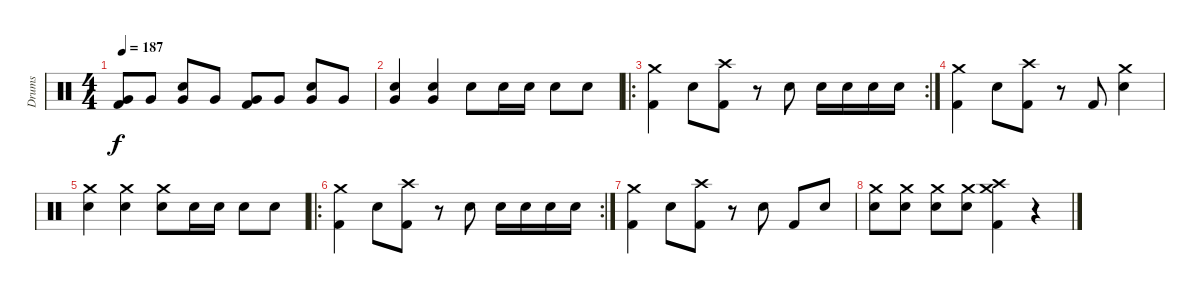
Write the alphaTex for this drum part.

\track ("Drums" "Drums") {instrument percussion}
\staff {score}
\articulation defaults
\ts (4 4)
\tempo 187
\clef neutral
\ks c
("Very Low Tom (hit)" "Kick (hit) 2").8{dy f} "Very Low Tom (hit)".8 ("Snare (hit) 2" "Very Low Tom (hit)").8 "Very Low Tom (hit)".8 ("Very Low Tom (hit)" "Kick (hit) 2").8 "Very Low Tom (hit)".8 ("Snare (hit) 2" "Very Low Tom (hit)").8 "Very Low Tom (hit)".8 |
("Snare (hit) 2" "Very Low Tom (hit)").4 ("Snare (hit) 2" "Very Low Tom (hit)").4 "Snare (hit) 2".8 "Snare (hit) 2".16 "Snare (hit) 2".16 "Snare (hit) 2".8 "Snare (hit) 2".8 |
\ro
\rc 2
("Crash medium (hit)" "Kick (hit) 2").4 "Snare (hit) 2".8 ("Crash high (hit)" "Kick (hit) 2").8 r.8 "Snare (hit) 2".8 "Snare (hit) 2".16 "Snare (hit) 2".16 "Snare (hit) 2".16 "Snare (hit) 2".16 |
("Crash medium (hit)" "Kick (hit) 2").4 "Snare (hit) 2".8 ("Crash high (hit)" "Kick (hit) 2").8 r.8 "Kick (hit) 2".8 ("Crash medium (hit)" "Snare (hit) 2").4 |
("Crash medium (hit)" "Snare (hit) 2").4 ("Crash medium (hit)" "Snare (hit) 2").4 ("Crash medium (hit)" "Snare (hit) 2").8 "Snare (hit) 2".16 "Snare (hit) 2".16 "Snare (hit) 2".8 "Snare (hit) 2".8 |
\ro
\rc 2
("Crash medium (hit)" "Kick (hit) 2").4 "Snare (hit) 2".8 ("Crash high (hit)" "Kick (hit) 2").8 r.8 "Snare (hit) 2".8 "Snare (hit) 2".16 "Snare (hit) 2".16 "Snare (hit) 2".16 "Snare (hit) 2".16 |
("Crash medium (hit)" "Kick (hit) 2").4 "Snare (hit) 2".8 ("Crash high (hit)" "Kick (hit) 2").8 r.8 "Snare (hit) 2".8 "Kick (hit) 2".8 "Snare (hit) 2".8 |
("Crash medium (hit)" "Snare (hit) 2").8 ("Crash medium (hit)" "Snare (hit) 2").8 ("Crash medium (hit)" "Snare (hit) 2").8 ("Crash medium (hit)" "Snare (hit) 2").8 ("Crash high (hit)" "Crash medium (hit)" "Kick (hit) 2").4 r.4
